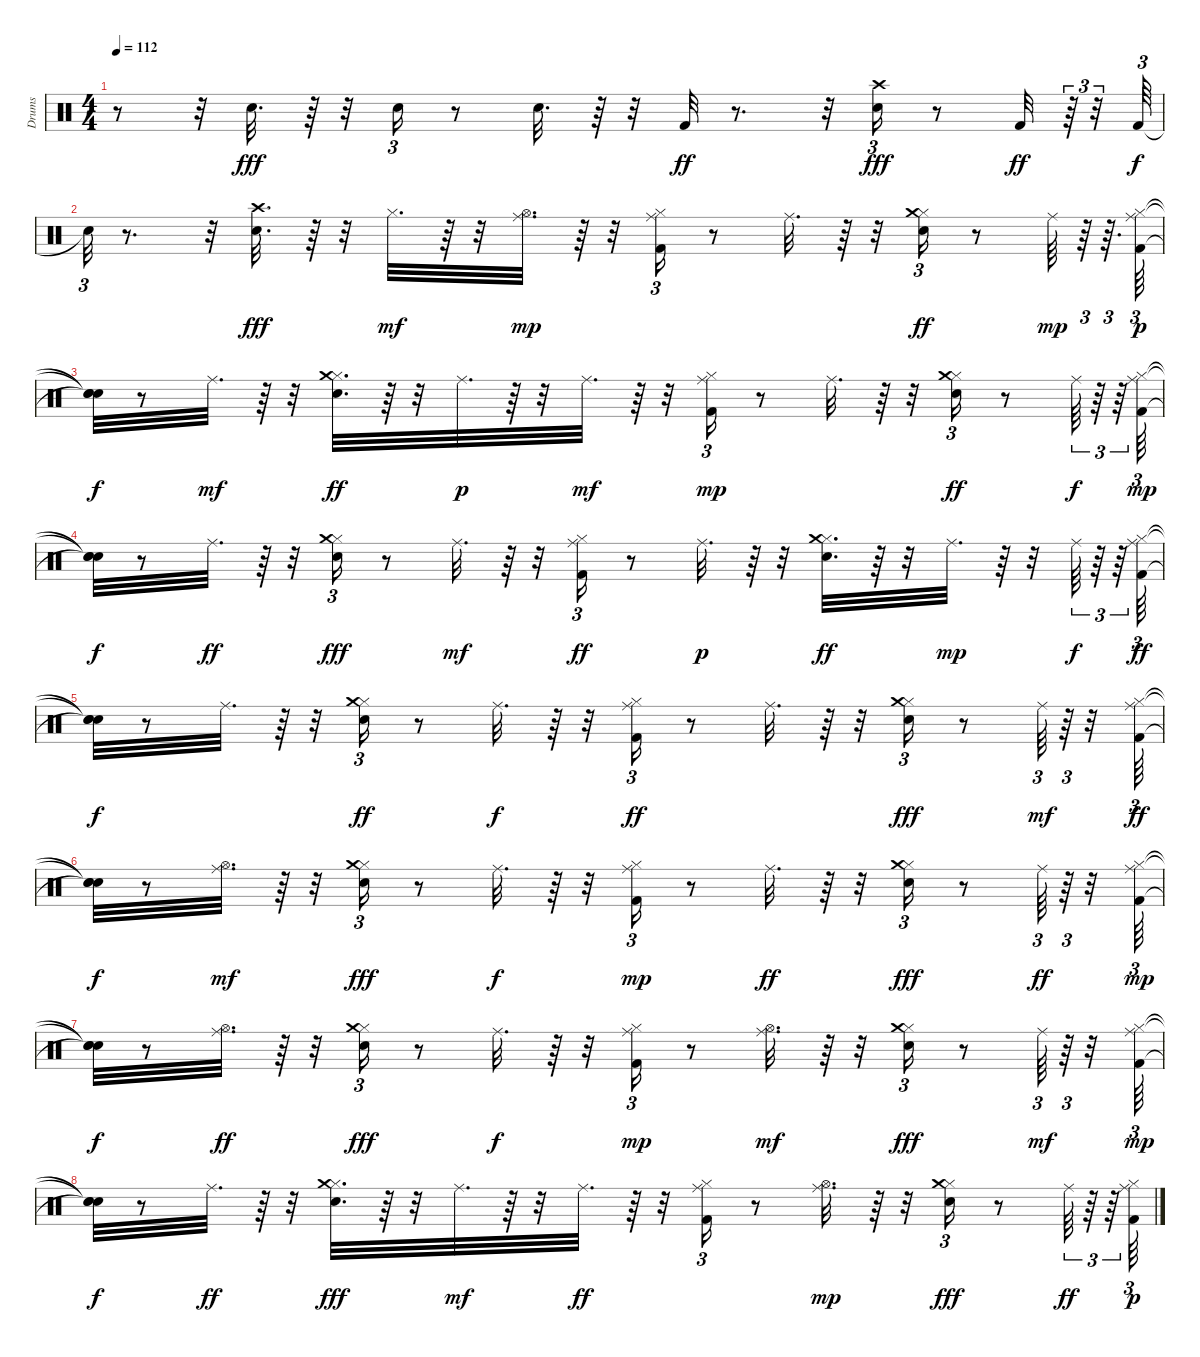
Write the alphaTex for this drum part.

\track ("Drums" "Drums") {instrument percussion}
\staff {score}
\articulation defaults
\ts (4 4)
\tempo 112
\clef neutral
\ks c
r.8{dy ppp} r.32 "Electric Snare (hit)".32{d dy fff} r.64 r.32 "Electric Snare (hit)".16{tu (3 2)} r.8 "Electric Snare (hit)".32{d} r.64 r.32 "Kick (hit) 2".32{dy ff} r.8{d} r.32 ("Crash high (hit)" "Electric Snare (hit)").16{tu (3 2) dy fff} r.8 "Kick (hit) 2".32{dy ff} r.64{tu (3 2)} r.32{tu (3 2)} "Kick (hit) 2".64{tu (3 2) dy f} |
"Snare (hit)"{t}.32{tu (3 2)} r.8{d} r.32 ("Crash high (hit)" "Electric Snare (hit)").32{d dy fff} r.64 r.32 "Hi-Hat (closed)".32{d dy mf} r.64 r.32 ("Hi-Hat (open)" "Ride (middle)").32{d dy mp} r.64 r.32 ("Kick (hit) 2" "Hi-Hat (closed)" "Ride (middle)").16{tu (3 2)} r.8 "Ride (middle)".32{d} r.64 r.32 ("Hi-Hat (closed)" "Crash medium (hit)" "Electric Snare (hit)").16{tu (3 2) dy ff} r.8 "Ride (middle)".64{dy mp} r.64{tu (3 2)} r.64{d tu (3 2)} ("Kick (hit) 2" "Hi-Hat (closed)" "Ride (middle)").64{tu (3 2) dy p} |
("Snare (hit)"{t} "Snare (hit)"{t} "Snare (hit)"{t}).32{dy f} r.8 "Ride (middle)".32{d dy mf} r.64 r.32 ("Hi-Hat (closed)" "Crash medium (hit)" "Electric Snare (hit)").32{d dy ff} r.64 r.32 "Ride (middle)".32{d dy p} r.64 r.32 "Ride (middle)".32{d dy mf} r.64 r.32 ("Kick (hit) 2" "Hi-Hat (closed)" "Ride (middle)").16{tu (3 2) dy mp} r.8 "Ride (middle)".32{d} r.64 r.32 ("Hi-Hat (closed)" "Crash medium (hit)" "Electric Snare (hit)").16{tu (3 2) dy ff} r.8 "Ride (middle)".64{tu (3 2) dy f} r.64{tu (3 2)} r.64{tu (3 2)} ("Kick (hit) 2" "Hi-Hat (closed)" "Ride (middle)").64{tu (3 2) dy mp} |
("Snare (hit)"{t} "Snare (hit)"{t} "Snare (hit)"{t}).32{dy f} r.8 "Ride (middle)".32{d dy ff} r.64 r.32 ("Hi-Hat (closed)" "Crash medium (hit)" "Electric Snare (hit)").16{tu (3 2) dy fff} r.8 "Ride (middle)".32{d dy mf} r.64 r.32 ("Kick (hit) 2" "Hi-Hat (closed)" "Ride (middle)").16{tu (3 2) dy ff} r.8 "Ride (middle)".32{d dy p} r.64 r.32 ("Hi-Hat (closed)" "Crash medium (hit)" "Electric Snare (hit)").32{d dy ff} r.64 r.32 "Ride (middle)".32{d dy mp} r.64 r.32 "Ride (middle)".64{tu (3 2) dy f} r.64{tu (3 2)} r.64{tu (3 2)} ("Kick (hit) 2" "Hi-Hat (closed)" "Ride (middle)").64{tu (3 2) dy ff} |
("Snare (hit)"{t} "Snare (hit)"{t} "Snare (hit)"{t}).32{dy f} r.8 "Ride (middle)".32{d} r.64 r.32 ("Hi-Hat (closed)" "Crash medium (hit)" "Electric Snare (hit)").16{tu (3 2) dy ff} r.8 "Ride (middle)".32{d dy f} r.64 r.32 ("Kick (hit) 2" "Hi-Hat (closed)" "Ride (middle)").16{tu (3 2) dy ff} r.8 "Ride (middle)".32{d} r.64 r.32 ("Hi-Hat (closed)" "Crash medium (hit)" "Electric Snare (hit)").16{tu (3 2) dy fff} r.8 "Ride (middle)".64{tu (3 2) dy mf} r.64{tu (3 2)} r.32 ("Kick (hit) 2" "Hi-Hat (closed)" "Ride (middle)").64{tu (3 2) dy ff} |
("Snare (hit)"{t} "Snare (hit)"{t} "Snare (hit)"{t}).32{dy f} r.8 ("Hi-Hat (open)" "Ride (middle)").32{d dy mf} r.64 r.32 ("Hi-Hat (closed)" "Crash medium (hit)" "Electric Snare (hit)").16{tu (3 2) dy fff} r.8 "Ride (middle)".32{d dy f} r.64 r.32 ("Kick (hit) 2" "Hi-Hat (closed)" "Ride (middle)").16{tu (3 2) dy mp} r.8 "Ride (middle)".32{d dy ff} r.64 r.32 ("Hi-Hat (closed)" "Crash medium (hit)" "Electric Snare (hit)").16{tu (3 2) dy fff} r.8 "Ride (middle)".64{tu (3 2) dy ff} r.64{tu (3 2)} r.32 ("Kick (hit) 2" "Hi-Hat (closed)" "Ride (middle)").64{tu (3 2) dy mp} |
("Snare (hit)"{t} "Snare (hit)"{t} "Snare (hit)"{t}).32{dy f} r.8 ("Hi-Hat (open)" "Ride (middle)").32{d dy ff} r.64 r.32 ("Hi-Hat (closed)" "Crash medium (hit)" "Electric Snare (hit)").16{tu (3 2) dy fff} r.8 "Ride (middle)".32{d dy f} r.64 r.32 ("Kick (hit) 2" "Hi-Hat (closed)" "Ride (middle)").16{tu (3 2) dy mp} r.8 ("Hi-Hat (open)" "Ride (middle)").32{d dy mf} r.64 r.32 ("Hi-Hat (closed)" "Crash medium (hit)" "Electric Snare (hit)").16{tu (3 2) dy fff} r.8 "Ride (middle)".64{tu (3 2) dy mf} r.64{tu (3 2)} r.32 ("Kick (hit) 2" "Hi-Hat (closed)" "Ride (middle)").64{tu (3 2) dy mp} |
("Snare (hit)"{t} "Snare (hit)"{t} "Snare (hit)"{t}).32{dy f} r.8 "Ride (middle)".32{d dy ff} r.64 r.32 ("Hi-Hat (closed)" "Crash medium (hit)" "Electric Snare (hit)").32{d dy fff} r.64 r.32 "Ride (middle)".32{d dy mf} r.64 r.32 "Ride (middle)".32{d dy ff} r.64 r.32 ("Kick (hit) 2" "Hi-Hat (closed)" "Ride (middle)").16{tu (3 2)} r.8 ("Hi-Hat (open)" "Ride (middle)").32{d dy mp} r.64 r.32 ("Hi-Hat (closed)" "Crash medium (hit)" "Electric Snare (hit)").16{tu (3 2) dy fff} r.8 "Ride (middle)".64{tu (3 2) dy ff} r.64{tu (3 2)} r.64{tu (3 2)} ("Kick (hit) 2" "Hi-Hat (closed)" "Ride (middle)").64{tu (3 2) dy p}
